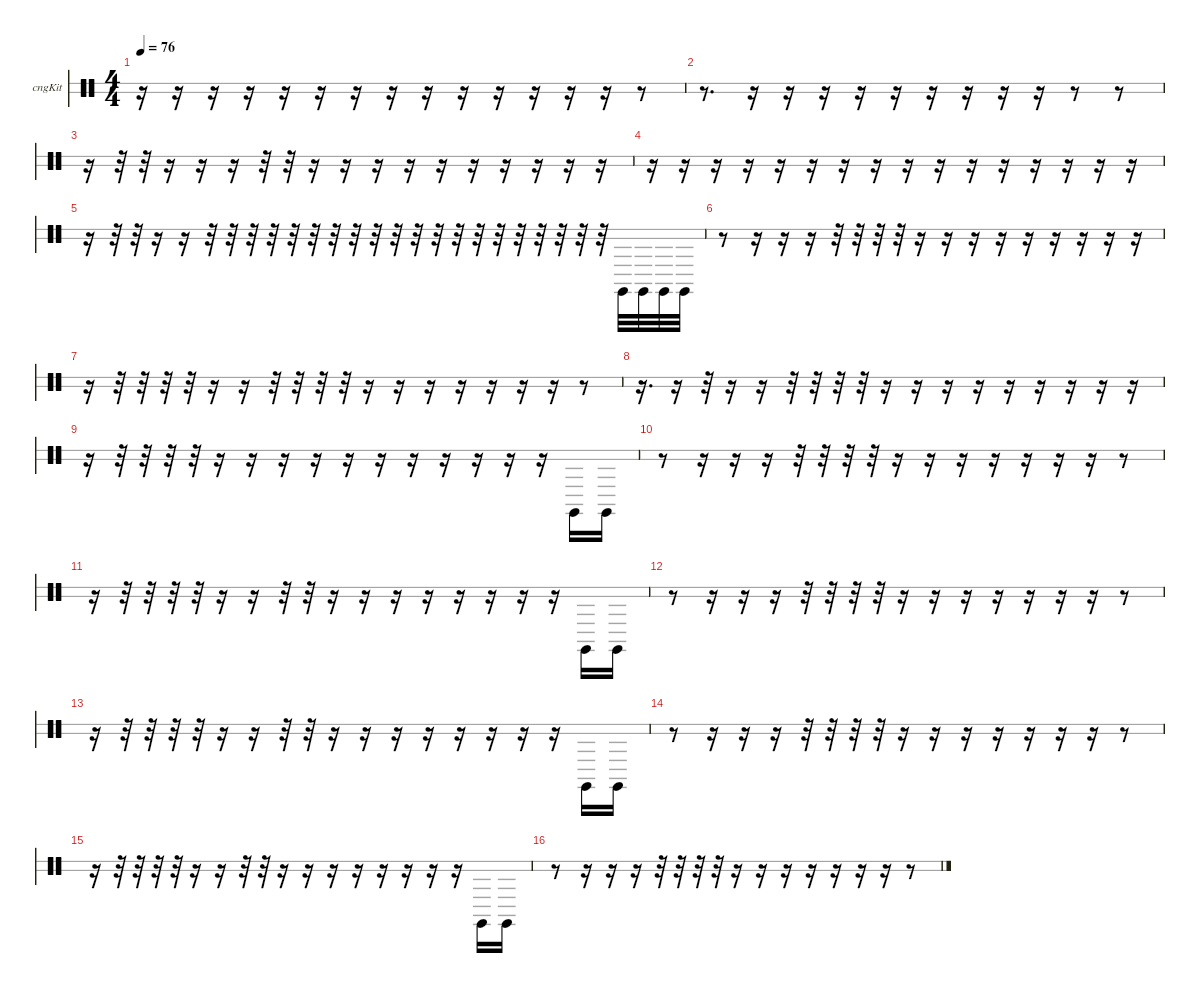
\hideDynamics
\bracketExtendMode nobrackets
\firstSystemTrackNameOrientation horizontal
\otherSystemsTrackNameOrientation horizontal
\track ("Congas" "cngKit") {instrument percussion}
\staff {score 2}
\articulation defaults
\ts (4 4)
\tempo 76
\clef neutral
\ks c
r.16{dy f beam Down} r.16{beam Down} r.16{beam Down} r.16{beam Down} r.16{beam Down} r.16{beam Down} r.16{beam Down} r.16{beam Down} r.16{beam Down} r.16{beam Down} r.16{beam Down} r.16{beam Down} r.16{beam Down} r.16{beam Down} r.8{beam Down} |
r.8{d beam Down} r.16{beam Down} r.16{beam Down} r.16{beam Down} r.16{beam Down} r.16{beam Down} r.16{beam Down} r.16{beam Down} r.16{beam Down} r.16{beam Down} r.8{beam Down} r.8{beam Down} |
r.16{beam Down} r.32{beam Down} r.32{beam Down} r.16{beam Down} r.16{beam Down} r.16{beam Down} r.32{beam Down} r.32{beam Down} r.16{beam Down} r.16{beam Down} r.16{beam Down} r.16{beam Down} r.16{beam Down} r.16{beam Down} r.16{beam Down} r.16{beam Down} r.16{beam Down} r.16{beam Down} |
r.16{beam Down} r.16{beam Down} r.16{beam Down} r.16{beam Down} r.16{beam Down} r.16{beam Down} r.16{beam Down} r.16{beam Down} r.16{beam Down} r.16{beam Down} r.16{beam Down} r.16{beam Down} r.16{beam Down} r.16{beam Down} r.16{beam Down} r.16{beam Down} |
r.16{beam Down} r.32{beam Down} r.32{beam Down} r.16{beam Down} r.16{beam Down} r.32{beam Down} r.32{beam Down} r.32{beam Down} r.32{beam Down} r.32{beam Down} r.32{beam Down} r.32{beam Down} r.32{beam Down} r.32{beam Down} r.32{beam Down} r.32{beam Down} r.32{beam Down} r.32{beam Down} r.32{beam Down} r.32{beam Down} r.32{beam Down} r.32{beam Down} r.32{beam Down} r.32{beam Down} r.32{beam Down} "Conga high (hit)".32{beam Down} "Conga high (hit)".32{beam Down} "Conga high (hit)".32{beam Down} "Conga high (hit)".32{beam Down} |
r.8{beam Down} r.16{beam Down} r.16{beam Down} r.16{beam Down} r.32{beam Down} r.32{beam Down} r.32{beam Down} r.32{beam Down} r.16{beam Down} r.16{beam Down} r.16{beam Down} r.16{beam Down} r.16{beam Down} r.16{beam Down} r.16{beam Down} r.16{beam Down} r.16{beam Down} |
r.16{beam Down} r.32{beam Down} r.32{beam Down} r.32{beam Down} r.32{beam Down} r.16{beam Down} r.16{beam Down} r.32{beam Down} r.32{beam Down} r.32{beam Down} r.32{beam Down} r.16{beam Down} r.16{beam Down} r.16{beam Down} r.16{beam Down} r.16{beam Down} r.16{beam Down} r.16{beam Down} r.8{beam Down} |
r.16{d beam Down} r.16{beam Down} r.32{beam Down} r.16{beam Down} r.16{beam Down} r.32{beam Down} r.32{beam Down} r.32{beam Down} r.32{beam Down} r.16{beam Down} r.16{beam Down} r.16{beam Down} r.16{beam Down} r.16{beam Down} r.16{beam Down} r.16{beam Down} r.16{beam Down} r.16{beam Down} |
r.16{beam Down} r.32{beam Down} r.32{beam Down} r.32{beam Down} r.32{beam Down} r.16{beam Down} r.16{beam Down} r.16{beam Down} r.16{beam Down} r.16{beam Down} r.16{beam Down} r.16{beam Down} r.16{beam Down} r.16{beam Down} r.16{beam Down} r.16{beam Down} "Conga high (hit)".16{beam Down} "Conga high (hit)".16{beam Down} |
r.8{beam Down} r.16{beam Down} r.16{beam Down} r.16{beam Down} r.32{beam Down} r.32{beam Down} r.32{beam Down} r.32{beam Down} r.16{beam Down} r.16{beam Down} r.16{beam Down} r.16{beam Down} r.16{beam Down} r.16{beam Down} r.16{beam Down} r.8{beam Down} |
r.16{beam Down} r.32{beam Down} r.32{beam Down} r.32{beam Down} r.32{beam Down} r.16{beam Down} r.16{beam Down} r.32{beam Down} r.32{beam Down} r.16{beam Down} r.16{beam Down} r.16{beam Down} r.16{beam Down} r.16{beam Down} r.16{beam Down} r.16{beam Down} r.16{beam Down} "Conga high (hit)".16{beam Down} "Conga high (hit)".16{beam Down} |
r.8{beam Down} r.16{beam Down} r.16{beam Down} r.16{beam Down} r.32{beam Down} r.32{beam Down} r.32{beam Down} r.32{beam Down} r.16{beam Down} r.16{beam Down} r.16{beam Down} r.16{beam Down} r.16{beam Down} r.16{beam Down} r.16{beam Down} r.8{beam Down} |
r.16{beam Down} r.32{beam Down} r.32{beam Down} r.32{beam Down} r.32{beam Down} r.16{beam Down} r.16{beam Down} r.32{beam Down} r.32{beam Down} r.16{beam Down} r.16{beam Down} r.16{beam Down} r.16{beam Down} r.16{beam Down} r.16{beam Down} r.16{beam Down} r.16{beam Down} "Conga high (hit)".16{beam Down} "Conga high (hit)".16{beam Down} |
r.8{beam Down} r.16{beam Down} r.16{beam Down} r.16{beam Down} r.32{beam Down} r.32{beam Down} r.32{beam Down} r.32{beam Down} r.16{beam Down} r.16{beam Down} r.16{beam Down} r.16{beam Down} r.16{beam Down} r.16{beam Down} r.16{beam Down} r.8{beam Down} |
r.16{beam Down} r.32{beam Down} r.32{beam Down} r.32{beam Down} r.32{beam Down} r.16{beam Down} r.16{beam Down} r.32{beam Down} r.32{beam Down} r.16{beam Down} r.16{beam Down} r.16{beam Down} r.16{beam Down} r.16{beam Down} r.16{beam Down} r.16{beam Down} r.16{beam Down} "Conga high (hit)".16{beam Down} "Conga high (hit)".16{beam Down} |
r.8{beam Down} r.16{beam Down} r.16{beam Down} r.16{beam Down} r.32{beam Down} r.32{beam Down} r.32{beam Down} r.32{beam Down} r.16{beam Down} r.16{beam Down} r.16{beam Down} r.16{beam Down} r.16{beam Down} r.16{beam Down} r.16{beam Down} r.8{beam Down}
